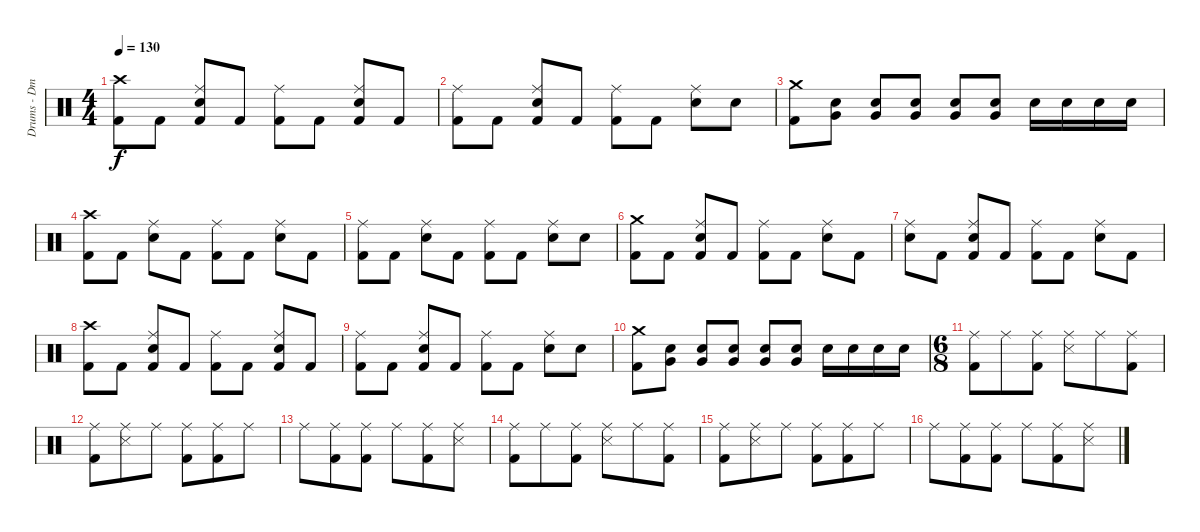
\track ("Drums - Dmitriy Krivenkov" "Drums - Dm") {instrument percussion}
\staff {score}
\articulation defaults
\ts (4 4)
\tempo 130
\clef neutral
\ks c
("Kick (hit) 2" "Crash high (hit)").8{dy f} "Kick (hit) 2".8 ("Ride (middle)" "Kick (hit) 2" "Electric Snare (hit)").8 "Kick (hit) 2".8 ("Ride (middle)" "Kick (hit) 2").8 "Kick (hit) 2".8 ("Kick (hit) 2" "Electric Snare (hit)" "Ride (middle)").8 "Kick (hit) 2".8 |
("Ride (middle)" "Kick (hit) 2").8 "Kick (hit) 2".8 ("Kick (hit) 2" "Electric Snare (hit)" "Ride (middle)").8 "Kick (hit) 2".8 ("Kick (hit) 2" "Ride (middle)").8 "Kick (hit) 2".8 ("Ride (middle)" "Electric Snare (hit)").8 "Electric Snare (hit)".8 |
("Kick (hit) 2" "Crash medium (hit)").8 ("Electric Snare (hit)" "Very Low Tom (hit)").8 ("Very Low Tom (hit)" "Electric Snare (hit)").8 ("Electric Snare (hit)" "Very Low Tom (hit)").8 ("Electric Snare (hit)" "Very Low Tom (hit)").8 ("Very Low Tom (hit)" "Electric Snare (hit)").8 "Electric Snare (hit)".16 "Electric Snare (hit)".16 "Electric Snare (hit)".16 "Electric Snare (hit)".16 |
("Crash high (hit)" "Kick (hit) 2").8 "Kick (hit) 2".8 ("Ride (middle)" "Electric Snare (hit)").8 "Kick (hit) 2".8 ("Ride (middle)" "Kick (hit) 2").8 "Kick (hit) 2".8 ("Ride (middle)" "Electric Snare (hit)").8 "Kick (hit) 2".8 |
("Kick (hit) 2" "Ride (middle)").8 "Kick (hit) 2".8 ("Ride (middle)" "Electric Snare (hit)").8 "Kick (hit) 2".8 ("Kick (hit) 2" "Ride (middle)").8 "Kick (hit) 2".8 ("Electric Snare (hit)" "Ride (middle)").8 "Electric Snare (hit)".8 |
("Crash medium (hit)" "Kick (hit) 2").8 "Kick (hit) 2".8 ("Ride (middle)" "Kick (hit) 2" "Electric Snare (hit)").8 "Kick (hit) 2".8 ("Kick (hit) 2" "Ride (middle)").8 "Kick (hit) 2".8 ("Ride (middle)" "Electric Snare (hit)").8 "Kick (hit) 2".8 |
("Ride (middle)" "Electric Snare (hit)").8 "Kick (hit) 2".8 ("Ride (middle)" "Electric Snare (hit)" "Kick (hit) 2").8 "Kick (hit) 2".8 ("Ride (middle)" "Kick (hit) 2").8 "Kick (hit) 2".8 ("Ride (middle)" "Electric Snare (hit)").8 "Kick (hit) 2".8 |
("Kick (hit) 2" "Crash high (hit)").8 "Kick (hit) 2".8 ("Ride (middle)" "Kick (hit) 2" "Electric Snare (hit)").8 "Kick (hit) 2".8 ("Ride (middle)" "Kick (hit) 2").8 "Kick (hit) 2".8 ("Kick (hit) 2" "Electric Snare (hit)" "Ride (middle)").8 "Kick (hit) 2".8 |
("Ride (middle)" "Kick (hit) 2").8 "Kick (hit) 2".8 ("Kick (hit) 2" "Electric Snare (hit)" "Ride (middle)").8 "Kick (hit) 2".8 ("Kick (hit) 2" "Ride (middle)").8 "Kick (hit) 2".8 ("Ride (middle)" "Electric Snare (hit)").8 "Electric Snare (hit)".8 |
("Kick (hit) 2" "Crash medium (hit)").8 ("Electric Snare (hit)" "Very Low Tom (hit)").8 ("Very Low Tom (hit)" "Electric Snare (hit)").8 ("Electric Snare (hit)" "Very Low Tom (hit)").8 ("Electric Snare (hit)" "Very Low Tom (hit)").8 ("Very Low Tom (hit)" "Electric Snare (hit)").8 "Electric Snare (hit)".16 "Electric Snare (hit)".16 "Electric Snare (hit)".16 "Electric Snare (hit)".16 |
\ts (6 8)
("Ride (middle)" "Kick (hit) 2").8 "Ride (middle)".8 ("Ride (middle)" "Kick (hit) 2").8 ("Snare (side stick) 3" "Ride (middle)").8 "Ride (middle)".8 ("Kick (hit) 2" "Ride (middle)").8 |
("Ride (middle)" "Kick (hit) 2").8 ("Ride (middle)" "Snare (side stick) 3").8 "Ride (middle)".8 ("Kick (hit) 2" "Ride (middle)").8 ("Ride (middle)" "Kick (hit) 2").8 "Ride (middle)".8 |
"Ride (middle)".8 ("Kick (hit) 2" "Ride (middle)").8 ("Ride (middle)" "Kick (hit) 2").8 "Ride (middle)".8 ("Ride (middle)" "Kick (hit) 2").8 ("Snare (side stick) 3" "Ride (middle)").8 |
("Ride (middle)" "Kick (hit) 2").8 "Ride (middle)".8 ("Ride (middle)" "Kick (hit) 2").8 ("Snare (side stick) 3" "Ride (middle)").8 "Ride (middle)".8 ("Kick (hit) 2" "Ride (middle)").8 |
("Ride (middle)" "Kick (hit) 2").8 ("Ride (middle)" "Snare (side stick) 3").8 "Ride (middle)".8 ("Kick (hit) 2" "Ride (middle)").8 ("Ride (middle)" "Kick (hit) 2").8 "Ride (middle)".8 |
"Ride (middle)".8 ("Kick (hit) 2" "Ride (middle)").8 ("Ride (middle)" "Kick (hit) 2").8 "Ride (middle)".8 ("Ride (middle)" "Kick (hit) 2").8 ("Snare (side stick) 3" "Ride (middle)").8
